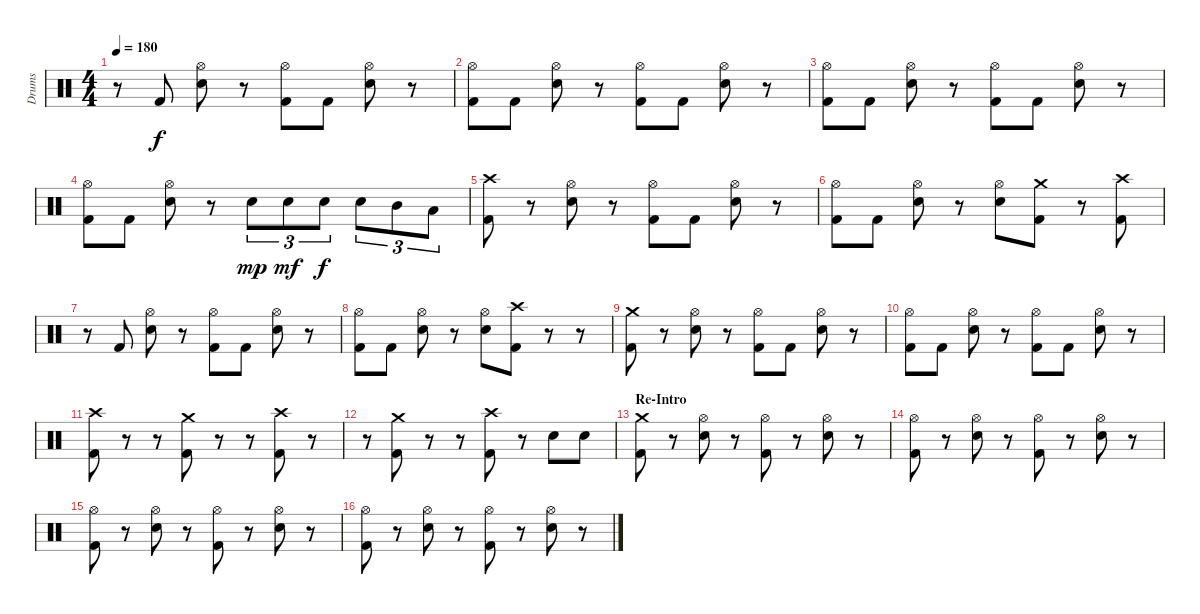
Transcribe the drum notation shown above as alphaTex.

\track ("Drums" "Drums") {instrument percussion}
\staff {score}
\articulation defaults
\ts (4 4)
\tempo 180
\clef neutral
\ks c
r.8{dy f} "Kick (hit) 2".8 ("Hi-Hat (open)" "Snare (hit) 2").8 r.8 ("Hi-Hat (open)" "Kick (hit) 2").8 "Kick (hit) 2".8 ("Hi-Hat (open)" "Snare (hit) 2").8 r.8 |
("Hi-Hat (open)" "Kick (hit) 2").8 "Kick (hit) 2".8 ("Hi-Hat (open)" "Snare (hit) 2").8 r.8 ("Hi-Hat (open)" "Kick (hit) 2").8 "Kick (hit) 2".8 ("Hi-Hat (open)" "Snare (hit) 2").8 r.8 |
("Hi-Hat (open)" "Kick (hit) 2").8 "Kick (hit) 2".8 ("Hi-Hat (open)" "Snare (hit) 2").8 r.8 ("Hi-Hat (open)" "Kick (hit) 2").8 "Kick (hit) 2".8 ("Hi-Hat (open)" "Snare (hit) 2").8 r.8 |
("Hi-Hat (open)" "Kick (hit) 2").8 "Kick (hit) 2".8 ("Hi-Hat (open)" "Snare (hit) 2").8 r.8 "Snare (hit) 2".8{tu (3 2) dy mp} "Snare (hit) 2".8{tu (3 2) dy mf} "Snare (hit) 2".8{tu (3 2) dy f} "Snare (hit) 2".8{tu (3 2)} "Mid Tom (hit)".8{tu (3 2)} "Low Tom (hit)".8{tu (3 2)} |
("Crash high (hit)" "Kick (hit) 2").8 r.8 ("Hi-Hat (open)" "Snare (hit) 2").8 r.8 ("Hi-Hat (open)" "Kick (hit) 2").8 "Kick (hit) 2".8 ("Hi-Hat (open)" "Snare (hit) 2").8 r.8 |
("Hi-Hat (open)" "Kick (hit) 2").8 "Kick (hit) 2".8 ("Hi-Hat (open)" "Snare (hit) 2").8 r.8 ("Hi-Hat (open)" "Snare (hit) 2").8 ("Crash medium (hit)" "Kick (hit) 2").8 r.8 ("Crash high (hit)" "Kick (hit) 2").8 |
r.8 "Kick (hit) 2".8 ("Hi-Hat (open)" "Snare (hit) 2").8 r.8 ("Hi-Hat (open)" "Kick (hit) 2").8 "Kick (hit) 2".8 ("Hi-Hat (open)" "Snare (hit) 2").8 r.8 |
("Hi-Hat (open)" "Kick (hit) 2").8 "Kick (hit) 2".8 ("Hi-Hat (open)" "Snare (hit) 2").8 r.8 ("Hi-Hat (open)" "Snare (hit) 2").8 ("Crash high (hit)" "Kick (hit) 2").8 r.8 r.8 |
("Crash medium (hit)" "Kick (hit) 2").8 r.8 ("Hi-Hat (open)" "Snare (hit) 2").8 r.8 ("Hi-Hat (open)" "Kick (hit) 2").8 "Kick (hit) 2".8 ("Hi-Hat (open)" "Snare (hit) 2").8 r.8 |
("Hi-Hat (open)" "Kick (hit) 2").8 "Kick (hit) 2".8 ("Hi-Hat (open)" "Snare (hit) 2").8 r.8 ("Hi-Hat (open)" "Kick (hit) 2").8 "Kick (hit) 2".8 ("Hi-Hat (open)" "Snare (hit) 2").8 r.8 |
("Crash high (hit)" "Kick (hit) 2").8 r.8 r.8 ("Crash medium (hit)" "Kick (hit) 2").8 r.8 r.8 ("Crash high (hit)" "Kick (hit) 2").8 r.8 |
r.8 ("Crash medium (hit)" "Kick (hit) 2").8 r.8 r.8 ("Crash high (hit)" "Kick (hit) 2").8 r.8 "Snare (hit) 2".8 "Snare (hit) 2".8 |
\section ("" "Re-Intro")
("Crash medium (hit)" "Kick (hit) 2").8 r.8 ("Hi-Hat (open)" "Snare (hit) 2").8 r.8 ("Hi-Hat (open)" "Kick (hit) 2").8 r.8 ("Hi-Hat (open)" "Snare (hit) 2").8 r.8 |
("Hi-Hat (open)" "Kick (hit) 2").8 r.8 ("Hi-Hat (open)" "Snare (hit) 2").8 r.8 ("Hi-Hat (open)" "Kick (hit) 2").8 r.8 ("Hi-Hat (open)" "Snare (hit) 2").8 r.8 |
("Hi-Hat (open)" "Kick (hit) 2").8 r.8 ("Hi-Hat (open)" "Snare (hit) 2").8 r.8 ("Hi-Hat (open)" "Kick (hit) 2").8 r.8 ("Hi-Hat (open)" "Snare (hit) 2").8 r.8 |
("Hi-Hat (open)" "Kick (hit) 2").8 r.8 ("Hi-Hat (open)" "Snare (hit) 2").8 r.8 ("Hi-Hat (open)" "Kick (hit) 2").8 r.8 ("Hi-Hat (open)" "Snare (hit) 2").8 r.8
